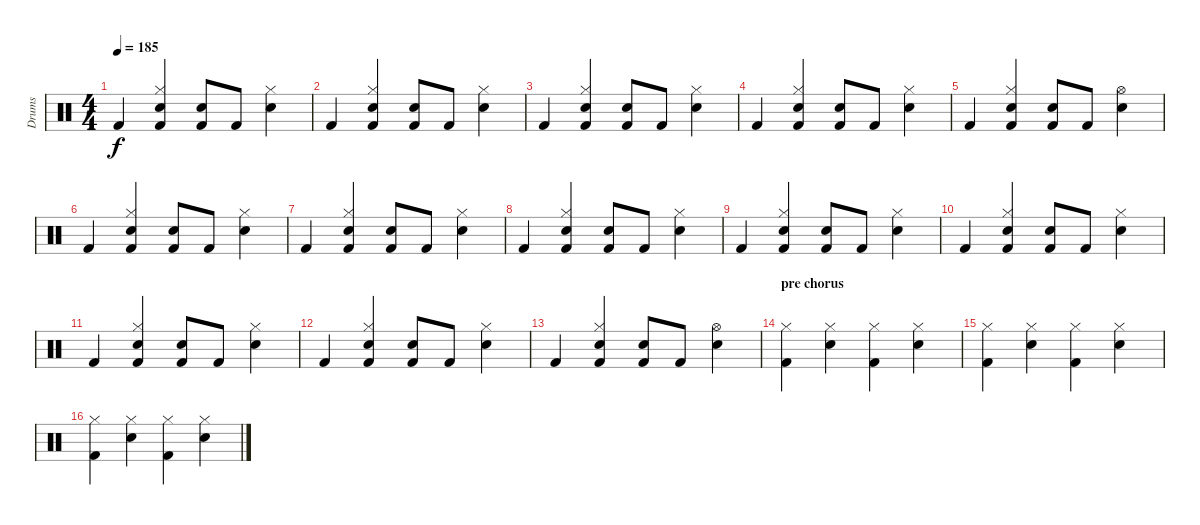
\track ("Drums" "Drums") {instrument percussion}
\staff {score}
\articulation defaults
\ts (4 4)
\tempo 185
\clef neutral
\ks c "Kick (hit) 2".4{dy f}
("Hi-Hat (closed)" "Snare (hit) 2" "Kick (hit) 2").4 ("Snare (hit) 2" "Kick (hit) 2").8 "Kick (hit) 2".8 ("Hi-Hat (closed)" "Snare (hit) 2").4 |
"Kick (hit) 2".4 ("Hi-Hat (closed)" "Snare (hit) 2" "Kick (hit) 2").4 ("Snare (hit) 2" "Kick (hit) 2").8 "Kick (hit) 2".8 ("Hi-Hat (closed)" "Snare (hit) 2").4 |
"Kick (hit) 2".4 ("Hi-Hat (closed)" "Snare (hit) 2" "Kick (hit) 2").4 ("Snare (hit) 2" "Kick (hit) 2").8 "Kick (hit) 2".8 ("Hi-Hat (closed)" "Snare (hit) 2").4 |
"Kick (hit) 2".4 ("Hi-Hat (closed)" "Snare (hit) 2" "Kick (hit) 2").4 ("Snare (hit) 2" "Kick (hit) 2").8 "Kick (hit) 2".8 ("Hi-Hat (closed)" "Snare (hit) 2").4 |
"Kick (hit) 2".4 ("Hi-Hat (closed)" "Snare (hit) 2" "Kick (hit) 2").4 ("Snare (hit) 2" "Kick (hit) 2").8 "Kick (hit) 2".8 ("Hi-Hat (open)" "Snare (hit) 2").4 |
"Kick (hit) 2".4 ("Hi-Hat (closed)" "Snare (hit) 2" "Kick (hit) 2").4 ("Snare (hit) 2" "Kick (hit) 2").8 "Kick (hit) 2".8 ("Hi-Hat (closed)" "Snare (hit) 2").4 |
"Kick (hit) 2".4 ("Hi-Hat (closed)" "Snare (hit) 2" "Kick (hit) 2").4 ("Snare (hit) 2" "Kick (hit) 2").8 "Kick (hit) 2".8 ("Hi-Hat (closed)" "Snare (hit) 2").4 |
"Kick (hit) 2".4 ("Hi-Hat (closed)" "Snare (hit) 2" "Kick (hit) 2").4 ("Snare (hit) 2" "Kick (hit) 2").8 "Kick (hit) 2".8 ("Hi-Hat (closed)" "Snare (hit) 2").4 |
"Kick (hit) 2".4 ("Hi-Hat (closed)" "Snare (hit) 2" "Kick (hit) 2").4 ("Snare (hit) 2" "Kick (hit) 2").8 "Kick (hit) 2".8 ("Hi-Hat (closed)" "Snare (hit) 2").4 |
"Kick (hit) 2".4 ("Hi-Hat (closed)" "Snare (hit) 2" "Kick (hit) 2").4 ("Snare (hit) 2" "Kick (hit) 2").8 "Kick (hit) 2".8 ("Hi-Hat (closed)" "Snare (hit) 2").4 |
"Kick (hit) 2".4 ("Hi-Hat (closed)" "Snare (hit) 2" "Kick (hit) 2").4 ("Snare (hit) 2" "Kick (hit) 2").8 "Kick (hit) 2".8 ("Hi-Hat (closed)" "Snare (hit) 2").4 |
"Kick (hit) 2".4 ("Hi-Hat (closed)" "Snare (hit) 2" "Kick (hit) 2").4 ("Snare (hit) 2" "Kick (hit) 2").8 "Kick (hit) 2".8 ("Hi-Hat (closed)" "Snare (hit) 2").4 |
"Kick (hit) 2".4 ("Hi-Hat (closed)" "Snare (hit) 2" "Kick (hit) 2").4 ("Snare (hit) 2" "Kick (hit) 2").8 "Kick (hit) 2".8 ("Hi-Hat (open)" "Snare (hit) 2").4 |
\section ("" "pre chorus")
("Hi-Hat (closed)" "Kick (hit) 2").4 ("Hi-Hat (closed)" "Snare (hit) 2").4 ("Hi-Hat (closed)" "Kick (hit) 2").4 ("Hi-Hat (closed)" "Snare (hit) 2").4 |
("Hi-Hat (closed)" "Kick (hit) 2").4 ("Hi-Hat (closed)" "Snare (hit) 2").4 ("Hi-Hat (closed)" "Kick (hit) 2").4 ("Hi-Hat (closed)" "Snare (hit) 2").4 |
("Hi-Hat (closed)" "Kick (hit) 2").4 ("Hi-Hat (closed)" "Snare (hit) 2").4 ("Hi-Hat (closed)" "Kick (hit) 2").4 ("Hi-Hat (closed)" "Snare (hit) 2").4
